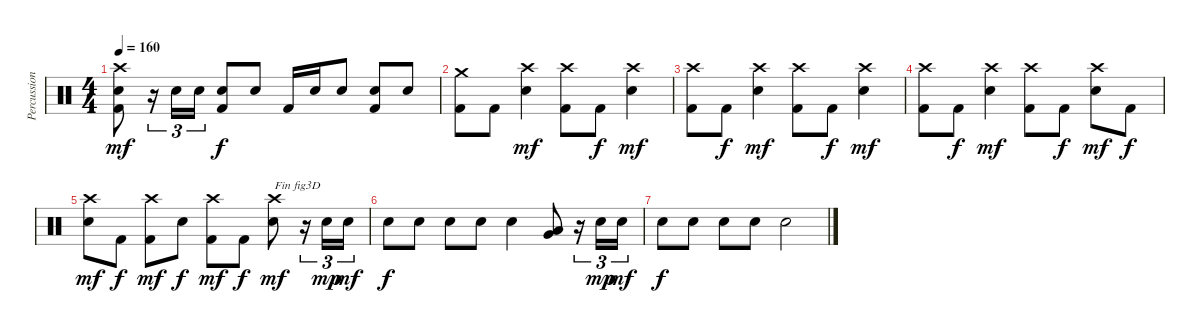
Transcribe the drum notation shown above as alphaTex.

\track ("Percussions" "Percussion") {instrument percussion}
\staff {score}
\articulation defaults
\ts (4 4)
\tempo 160
\clef neutral
\ks c
("Kick (hit) 2" "Electric Snare (hit)" "Crash high (hit)").8{dy mf} r.16{tu (3 2)} "Electric Snare (hit)".16{tu (3 2)} "Electric Snare (hit)".16{tu (3 2)} ("Kick (hit) 2" "Electric Snare (hit)").8{dy f} "Electric Snare (hit)".8 "Kick (hit) 2".16 "Electric Snare (hit)".16 "Electric Snare (hit)".8 ("Kick (hit) 2" "Electric Snare (hit)").8 "Electric Snare (hit)".8 |
("Kick (hit) 2" "Crash medium (hit)").8 "Kick (hit) 2".8 ("Electric Snare (hit)" "Crash high (hit)").4{dy mf} ("Kick (hit) 2" "Crash high (hit)").8 "Kick (hit) 2".8{dy f} ("Electric Snare (hit)" "Crash high (hit)").4{dy mf} |
("Kick (hit) 2" "Crash high (hit)").8 "Kick (hit) 2".8{dy f} ("Electric Snare (hit)" "Crash high (hit)").4{dy mf} ("Kick (hit) 2" "Crash high (hit)").8 "Kick (hit) 2".8{dy f} ("Electric Snare (hit)" "Crash high (hit)").4{dy mf} |
("Kick (hit) 2" "Crash high (hit)").8 "Kick (hit) 2".8{dy f} ("Electric Snare (hit)" "Crash high (hit)").4{dy mf} ("Kick (hit) 2" "Crash high (hit)").8 "Kick (hit) 2".8{dy f} ("Electric Snare (hit)" "Crash high (hit)").8{dy mf} "Kick (hit) 2".8{dy f} |
("Electric Snare (hit)" "Crash high (hit)").8{dy mf} "Kick (hit) 2".8{dy f} ("Kick (hit) 2" "Crash high (hit)").8{dy mf} "Electric Snare (hit)".8{dy f} ("Kick (hit) 2" "Crash high (hit)").8{dy mf} "Kick (hit) 2".8{dy f} ("Electric Snare (hit)" "Crash high (hit)").8{txt "Fin fig3D" dy mf} r.16{tu (3 2)} "Electric Snare (hit)".16{tu (3 2) dy mp} "Electric Snare (hit)".16{tu (3 2) dy mf} |
"Electric Snare (hit)".8{dy f} "Electric Snare (hit)".8 "Electric Snare (hit)".8 "Electric Snare (hit)".8 "Electric Snare (hit)".4 ("Very Low Tom (hit)" "Low Tom (hit)").8 r.16{tu (3 2)} "Electric Snare (hit)".16{tu (3 2) dy mp} "Electric Snare (hit)".16{tu (3 2) dy mf} |
"Electric Snare (hit)".8{dy f} "Electric Snare (hit)".8 "Electric Snare (hit)".8 "Electric Snare (hit)".8 "Electric Snare (hit)".2
